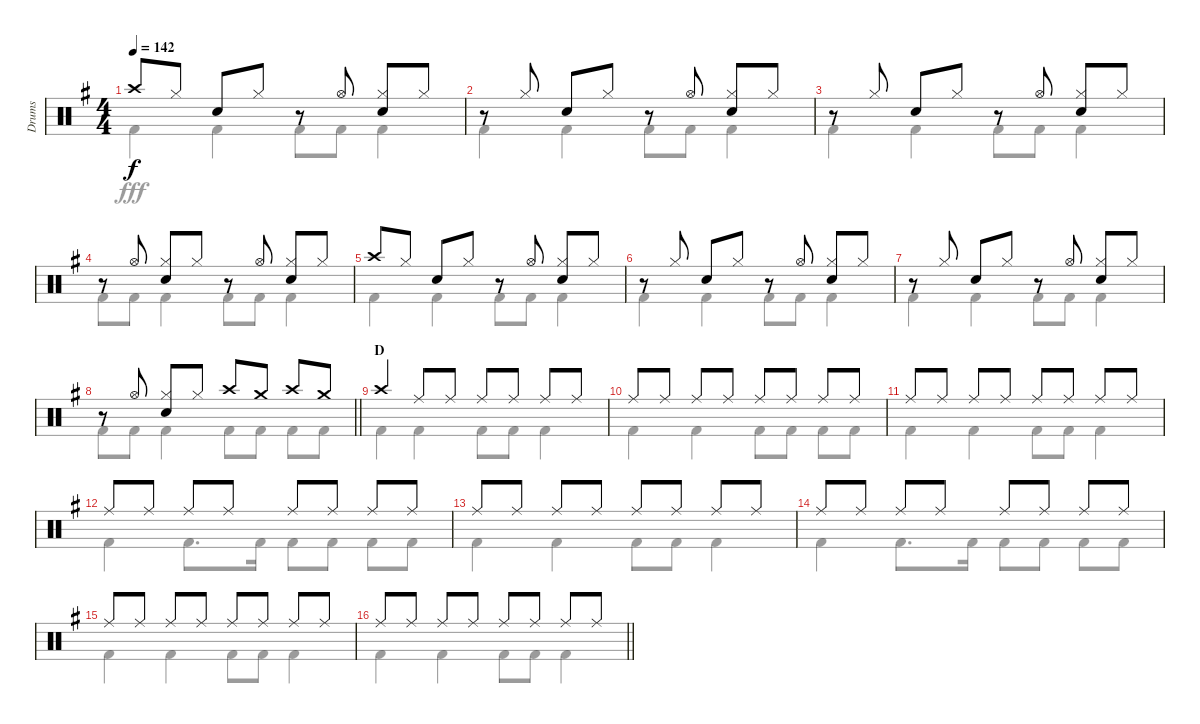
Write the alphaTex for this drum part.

\track ("Drums" "Drums") {instrument percussion}
\staff {score}
\articulation defaults
\voice
\ts (4 4)
\tempo 142
\clef neutral
\ks g "Crash high (hit)".8{dy f} "Hi-Hat (closed)".8 "Snare (hit) 2".8 "Hi-Hat (closed)".8
r.8 "Hi-Hat (open)".8 ("Hi-Hat (closed)" "Snare (hit) 2").8 "Hi-Hat (closed)".8 |
r.8 "Hi-Hat (closed)".8 "Snare (hit) 2".8 "Hi-Hat (closed)".8 r.8 "Hi-Hat (open)".8 ("Hi-Hat (closed)" "Snare (hit) 2").8 "Hi-Hat (closed)".8 |
r.8 "Hi-Hat (closed)".8 "Snare (hit) 2".8 "Hi-Hat (closed)".8 r.8 "Hi-Hat (open)".8 ("Hi-Hat (closed)" "Snare (hit) 2").8 "Hi-Hat (closed)".8 |
r.8 "Hi-Hat (open)".8 ("Hi-Hat (closed)" "Snare (hit) 2").8 "Hi-Hat (closed)".8 r.8 "Hi-Hat (open)".8 ("Hi-Hat (closed)" "Snare (hit) 2").8 "Hi-Hat (closed)".8 |
"Crash high (hit)".8 "Hi-Hat (closed)".8 "Snare (hit) 2".8 "Hi-Hat (closed)".8 r.8 "Hi-Hat (open)".8 ("Hi-Hat (closed)" "Snare (hit) 2").8 "Hi-Hat (closed)".8 |
r.8 "Hi-Hat (closed)".8 "Snare (hit) 2".8 "Hi-Hat (closed)".8 r.8 "Hi-Hat (open)".8 ("Hi-Hat (closed)" "Snare (hit) 2").8 "Hi-Hat (closed)".8 |
r.8 "Hi-Hat (closed)".8 "Snare (hit) 2".8 "Hi-Hat (closed)".8 r.8 "Hi-Hat (open)".8 ("Hi-Hat (closed)" "Snare (hit) 2").8 "Hi-Hat (closed)".8 |
\barLineRight lightlight
r.8 "Hi-Hat (open)".8 ("Hi-Hat (closed)" "Snare (hit) 2").8 "Hi-Hat (closed)".8 "Crash high (hit)".8 "Crash medium (hit)".8 "Crash high (hit)".8 "Crash medium (hit)".8 |
\section ("" "D")
"Crash high (hit)".4 "Ride (middle)".8 "Ride (middle)".8 "Ride (middle)".8 "Ride (middle)".8 "Ride (middle)".8 "Ride (middle)".8 |
"Ride (middle)".8 "Ride (middle)".8 "Ride (middle)".8 "Ride (middle)".8 "Ride (middle)".8 "Ride (middle)".8 "Ride (middle)".8 "Ride (middle)".8 |
"Ride (middle)".8 "Ride (middle)".8 "Ride (middle)".8 "Ride (middle)".8 "Ride (middle)".8 "Ride (middle)".8 "Ride (middle)".8 "Ride (middle)".8 |
"Ride (middle)".8 "Ride (middle)".8 "Ride (middle)".8 "Ride (middle)".8 "Ride (middle)".8 "Ride (middle)".8 "Ride (middle)".8 "Ride (middle)".8 |
"Ride (middle)".8 "Ride (middle)".8 "Ride (middle)".8 "Ride (middle)".8 "Ride (middle)".8 "Ride (middle)".8 "Ride (middle)".8 "Ride (middle)".8 |
"Ride (middle)".8 "Ride (middle)".8 "Ride (middle)".8 "Ride (middle)".8 "Ride (middle)".8 "Ride (middle)".8 "Ride (middle)".8 "Ride (middle)".8 |
"Ride (middle)".8 "Ride (middle)".8 "Ride (middle)".8 "Ride (middle)".8 "Ride (middle)".8 "Ride (middle)".8 "Ride (middle)".8 "Ride (middle)".8 |
\barLineRight lightlight "Ride (middle)".8 "Ride (middle)".8 "Ride (middle)".8 "Ride (middle)".8 "Ride (middle)".8 "Ride (middle)".8 "Ride (middle)".8 "Ride (middle)".8
\voice
\clef neutral
\ottava regular
\simile none
\ks g "Kick (hit) 2".4{dy fff} "Kick (hit) 2".4 "Kick (hit) 2".8 "Kick (hit) 2".8 "Kick (hit) 2".4
|
"Kick (hit) 2".4 "Kick (hit) 2".4 "Kick (hit) 2".8 "Kick (hit) 2".8 "Kick (hit) 2".4 |
"Kick (hit) 2".4 "Kick (hit) 2".4 "Kick (hit) 2".8 "Kick (hit) 2".8 "Kick (hit) 2".4 |
"Kick (hit) 2".8 "Kick (hit) 2".8 "Kick (hit) 2".4 "Kick (hit) 2".8 "Kick (hit) 2".8 "Kick (hit) 2".4 |
"Kick (hit) 2".4 "Kick (hit) 2".4 "Kick (hit) 2".8 "Kick (hit) 2".8 "Kick (hit) 2".4 |
"Kick (hit) 2".4 "Kick (hit) 2".4 "Kick (hit) 2".8 "Kick (hit) 2".8 "Kick (hit) 2".4 |
"Kick (hit) 2".4 "Kick (hit) 2".4 "Kick (hit) 2".8 "Kick (hit) 2".8 "Kick (hit) 2".4 |
\barLineRight lightlight "Kick (hit) 2".8 "Kick (hit) 2".8 "Kick (hit) 2".4 "Kick (hit) 2".8 "Kick (hit) 2".8 "Kick (hit) 2".8 "Kick (hit) 2".8
|
"Kick (hit) 2".4 "Kick (hit) 2".4 "Kick (hit) 2".8 "Kick (hit) 2".8 "Kick (hit) 2".4 |
"Kick (hit) 2".4 "Kick (hit) 2".4 "Kick (hit) 2".8 "Kick (hit) 2".8 "Kick (hit) 2".8 "Kick (hit) 2".8 |
"Kick (hit) 2".4 "Kick (hit) 2".4 "Kick (hit) 2".8 "Kick (hit) 2".8 "Kick (hit) 2".4 |
"Kick (hit) 2".4 "Kick (hit) 2".8{d} "Kick (hit) 2".16 "Kick (hit) 2".8 "Kick (hit) 2".8 "Kick (hit) 2".8 "Kick (hit) 2".8 |
"Kick (hit) 2".4 "Kick (hit) 2".4 "Kick (hit) 2".8 "Kick (hit) 2".8 "Kick (hit) 2".4 |
"Kick (hit) 2".4 "Kick (hit) 2".8{d} "Kick (hit) 2".16 "Kick (hit) 2".8 "Kick (hit) 2".8 "Kick (hit) 2".8 "Kick (hit) 2".8 |
"Kick (hit) 2".4 "Kick (hit) 2".4 "Kick (hit) 2".8 "Kick (hit) 2".8 "Kick (hit) 2".4 |
\barLineRight lightlight "Kick (hit) 2".4 "Kick (hit) 2".4 "Kick (hit) 2".8 "Kick (hit) 2".8 "Kick (hit) 2".4
